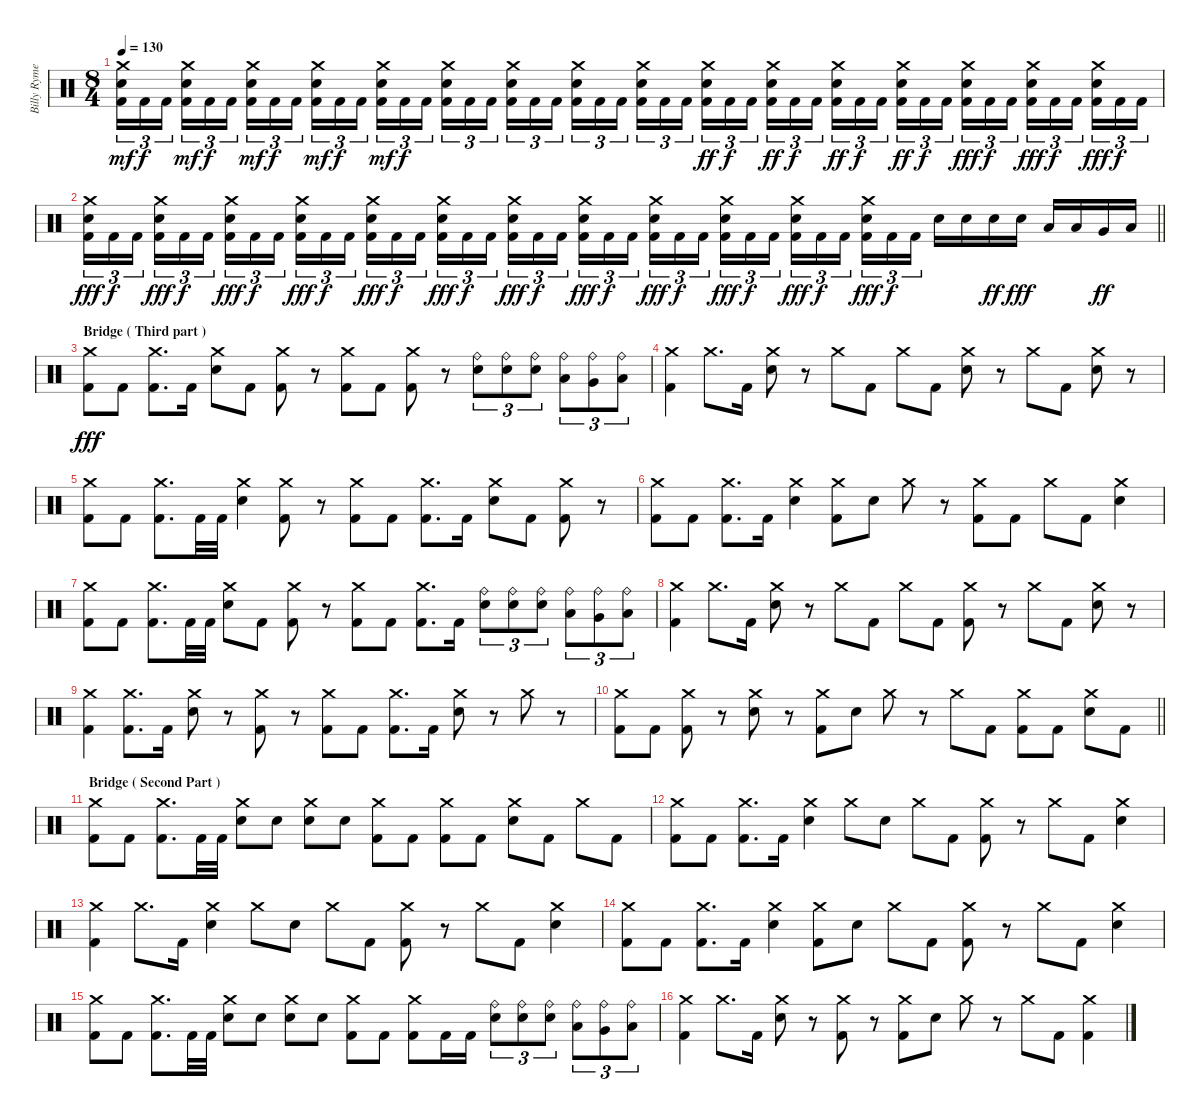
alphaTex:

\track ("Billy Rymer" "Billy Ryme") {instrument percussion}
\staff {score}
\articulation defaults
\ts (8 4)
\tempo 130
\clef neutral
\ks c
("Crash medium (hit)" "Electric Snare (hit)" "Kick (hit) 2").16{tu (3 2) dy mf} "Kick (hit) 2".16{tu (3 2) dy f} "Kick (hit) 2".16{tu (3 2) beam splitsecondary} ("Crash medium (hit)" "Electric Snare (hit)" "Kick (hit) 2").16{tu (3 2) dy mf} "Kick (hit) 2".16{tu (3 2) dy f} "Kick (hit) 2".16{tu (3 2)} ("Crash medium (hit)" "Electric Snare (hit)" "Kick (hit) 2").16{tu (3 2) dy mf} "Kick (hit) 2".16{tu (3 2) dy f} "Kick (hit) 2".16{tu (3 2) beam splitsecondary} ("Crash medium (hit)" "Electric Snare (hit)" "Kick (hit) 2").16{tu (3 2) dy mf} "Kick (hit) 2".16{tu (3 2) dy f} "Kick (hit) 2".16{tu (3 2)} ("Crash medium (hit)" "Electric Snare (hit)" "Kick (hit) 2").16{tu (3 2) dy mf} "Kick (hit) 2".16{tu (3 2) dy f} "Kick (hit) 2".16{tu (3 2) beam splitsecondary} ("Crash medium (hit)" "Electric Snare (hit)" "Kick (hit) 2").16{tu (3 2)} "Kick (hit) 2".16{tu (3 2)} "Kick (hit) 2".16{tu (3 2)} ("Crash medium (hit)" "Electric Snare (hit)" "Kick (hit) 2").16{tu (3 2)} "Kick (hit) 2".16{tu (3 2)} "Kick (hit) 2".16{tu (3 2) beam splitsecondary} ("Crash medium (hit)" "Electric Snare (hit)" "Kick (hit) 2").16{tu (3 2)} "Kick (hit) 2".16{tu (3 2)} "Kick (hit) 2".16{tu (3 2)} ("Crash medium (hit)" "Electric Snare (hit)" "Kick (hit) 2").16{tu (3 2)} "Kick (hit) 2".16{tu (3 2)} "Kick (hit) 2".16{tu (3 2) beam splitsecondary} ("Crash medium (hit)" "Electric Snare (hit)" "Kick (hit) 2").16{tu (3 2) dy ff} "Kick (hit) 2".16{tu (3 2) dy f} "Kick (hit) 2".16{tu (3 2)} ("Crash medium (hit)" "Electric Snare (hit)" "Kick (hit) 2").16{tu (3 2) dy ff} "Kick (hit) 2".16{tu (3 2) dy f} "Kick (hit) 2".16{tu (3 2) beam splitsecondary} ("Crash medium (hit)" "Electric Snare (hit)" "Kick (hit) 2").16{tu (3 2) dy ff} "Kick (hit) 2".16{tu (3 2) dy f} "Kick (hit) 2".16{tu (3 2)} ("Crash medium (hit)" "Electric Snare (hit)" "Kick (hit) 2").16{tu (3 2) dy ff} "Kick (hit) 2".16{tu (3 2) dy f} "Kick (hit) 2".16{tu (3 2) beam splitsecondary} ("Crash medium (hit)" "Electric Snare (hit)" "Kick (hit) 2").16{tu (3 2) dy fff} "Kick (hit) 2".16{tu (3 2) dy f} "Kick (hit) 2".16{tu (3 2)} ("Crash medium (hit)" "Electric Snare (hit)" "Kick (hit) 2").16{tu (3 2) dy fff} "Kick (hit) 2".16{tu (3 2) dy f} "Kick (hit) 2".16{tu (3 2) beam splitsecondary} ("Crash medium (hit)" "Electric Snare (hit)" "Kick (hit) 2").16{tu (3 2) dy fff} "Kick (hit) 2".16{tu (3 2) dy f} "Kick (hit) 2".16{tu (3 2)} |
\barLineRight lightlight
("Crash medium (hit)" "Electric Snare (hit)" "Kick (hit) 2").16{tu (3 2) dy fff} "Kick (hit) 2".16{tu (3 2) dy f} "Kick (hit) 2".16{tu (3 2) beam splitsecondary} ("Crash medium (hit)" "Electric Snare (hit)" "Kick (hit) 2").16{tu (3 2) dy fff} "Kick (hit) 2".16{tu (3 2) dy f} "Kick (hit) 2".16{tu (3 2)} ("Crash medium (hit)" "Electric Snare (hit)" "Kick (hit) 2").16{tu (3 2) dy fff} "Kick (hit) 2".16{tu (3 2) dy f} "Kick (hit) 2".16{tu (3 2) beam splitsecondary} ("Crash medium (hit)" "Electric Snare (hit)" "Kick (hit) 2").16{tu (3 2) dy fff} "Kick (hit) 2".16{tu (3 2) dy f} "Kick (hit) 2".16{tu (3 2)} ("Crash medium (hit)" "Electric Snare (hit)" "Kick (hit) 2").16{tu (3 2) dy fff} "Kick (hit) 2".16{tu (3 2) dy f} "Kick (hit) 2".16{tu (3 2) beam splitsecondary} ("Crash medium (hit)" "Electric Snare (hit)" "Kick (hit) 2").16{tu (3 2) dy fff} "Kick (hit) 2".16{tu (3 2) dy f} "Kick (hit) 2".16{tu (3 2)} ("Crash medium (hit)" "Electric Snare (hit)" "Kick (hit) 2").16{tu (3 2) dy fff} "Kick (hit) 2".16{tu (3 2) dy f} "Kick (hit) 2".16{tu (3 2) beam splitsecondary} ("Crash medium (hit)" "Electric Snare (hit)" "Kick (hit) 2").16{tu (3 2) dy fff} "Kick (hit) 2".16{tu (3 2) dy f} "Kick (hit) 2".16{tu (3 2)} ("Crash medium (hit)" "Electric Snare (hit)" "Kick (hit) 2").16{tu (3 2) dy fff} "Kick (hit) 2".16{tu (3 2) dy f} "Kick (hit) 2".16{tu (3 2) beam splitsecondary} ("Crash medium (hit)" "Electric Snare (hit)" "Kick (hit) 2").16{tu (3 2) dy fff} "Kick (hit) 2".16{tu (3 2) dy f} "Kick (hit) 2".16{tu (3 2)} ("Crash medium (hit)" "Electric Snare (hit)" "Kick (hit) 2").16{tu (3 2) dy fff} "Kick (hit) 2".16{tu (3 2) dy f} "Kick (hit) 2".16{tu (3 2) beam splitsecondary} ("Crash medium (hit)" "Electric Snare (hit)" "Kick (hit) 2").16{tu (3 2) dy fff} "Kick (hit) 2".16{tu (3 2) dy f} "Kick (hit) 2".16{tu (3 2)} "Electric Snare (hit)".16 "Electric Snare (hit)".16 "Electric Snare (hit)".16{dy ff} "Electric Snare (hit)".16{dy fff} "Low Tom (hit)".16 "Low Tom (hit)".16 "Very Low Tom (hit)".16{dy ff} "Low Floor Tom (hit)".16 |
\section ("" "Bridge ( Third part )")
("Crash medium (hit)" "Kick (hit) 2").8{dy fff} "Kick (hit) 2".8 ("Crash medium (hit)" "Kick (hit) 2").8{d} "Kick (hit) 2".16 ("Crash medium (hit)" "Electric Snare (hit)").8 "Kick (hit) 2".8 ("Crash medium (hit)" "Kick (hit) 2").8 r.8 ("Crash medium (hit)" "Kick (hit) 2").8 "Kick (hit) 2".8 ("Crash medium (hit)" "Kick (hit) 2").8 r.8 ("Ride (bell)" "Electric Snare (hit)").8{tu (3 2)} ("Ride (bell)" "Electric Snare (hit)").8{tu (3 2)} ("Ride (bell)" "Electric Snare (hit)").8{tu (3 2)} ("Ride (bell)" "Low Tom (hit)").8{tu (3 2)} ("Ride (bell)" "Very Low Tom (hit)").8{tu (3 2)} ("Ride (bell)" "Low Floor Tom (hit)").8{tu (3 2)} |
("Crash medium (hit)" "Kick (hit) 2").4 "Crash medium (hit)".8{d} "Kick (hit) 2".16 ("Crash medium (hit)" "Electric Snare (hit)").8 r.8 "Crash medium (hit)".8 "Kick (hit) 2".8 "Crash medium (hit)".8 "Kick (hit) 2".8 ("Crash medium (hit)" "Electric Snare (hit)").8 r.8 "Crash medium (hit)".8 "Kick (hit) 2".8 ("Crash medium (hit)" "Electric Snare (hit)").8 r.8 |
("Crash medium (hit)" "Kick (hit) 2").8 "Kick (hit) 2".8 ("Crash medium (hit)" "Kick (hit) 2").8{d} "Kick (hit) 2".32 "Kick (hit) 2".32 ("Crash medium (hit)" "Electric Snare (hit)").4 ("Crash medium (hit)" "Kick (hit) 2").8 r.8 ("Crash medium (hit)" "Kick (hit) 2").8 "Kick (hit) 2".8 ("Crash medium (hit)" "Kick (hit) 2").8{d} "Kick (hit) 2".16 ("Crash medium (hit)" "Electric Snare (hit)").8 "Kick (hit) 2".8 ("Crash medium (hit)" "Kick (hit) 2").8 r.8 |
("Crash medium (hit)" "Kick (hit) 2").8 "Kick (hit) 2".8 ("Crash medium (hit)" "Kick (hit) 2").8{d} "Kick (hit) 2".16 ("Crash medium (hit)" "Electric Snare (hit)").4 ("Crash medium (hit)" "Kick (hit) 2").8 "Electric Snare (hit)".8 "Crash medium (hit)".8 r.8 ("Crash medium (hit)" "Kick (hit) 2").8 "Kick (hit) 2".8 "Crash medium (hit)".8 "Kick (hit) 2".8 ("Crash medium (hit)" "Electric Snare (hit)").4 |
("Crash medium (hit)" "Kick (hit) 2").8 "Kick (hit) 2".8 ("Crash medium (hit)" "Kick (hit) 2").8{d} "Kick (hit) 2".32 "Kick (hit) 2".32 ("Crash medium (hit)" "Electric Snare (hit)").8 "Kick (hit) 2".8 ("Crash medium (hit)" "Kick (hit) 2").8 r.8 ("Crash medium (hit)" "Kick (hit) 2").8 "Kick (hit) 2".8 ("Crash medium (hit)" "Kick (hit) 2").8{d} "Kick (hit) 2".16 ("Ride (bell)" "Electric Snare (hit)").8{tu (3 2)} ("Ride (bell)" "Electric Snare (hit)").8{tu (3 2)} ("Ride (bell)" "Electric Snare (hit)").8{tu (3 2)} ("Ride (bell)" "Low Tom (hit)").8{tu (3 2)} ("Ride (bell)" "Very Low Tom (hit)").8{tu (3 2)} ("Ride (bell)" "Low Floor Tom (hit)").8{tu (3 2)} |
("Crash medium (hit)" "Kick (hit) 2").4 "Crash medium (hit)".8{d} "Kick (hit) 2".16 ("Crash medium (hit)" "Electric Snare (hit)").8 r.8 "Crash medium (hit)".8 "Kick (hit) 2".8 "Crash medium (hit)".8 "Kick (hit) 2".8 ("Crash medium (hit)" "Kick (hit) 2").8 r.8 "Crash medium (hit)".8 "Kick (hit) 2".8 ("Crash medium (hit)" "Electric Snare (hit)").8 r.8 |
("Crash medium (hit)" "Kick (hit) 2").4 ("Crash medium (hit)" "Kick (hit) 2").8{d} "Kick (hit) 2".16 ("Crash medium (hit)" "Electric Snare (hit)").8 r.8 ("Crash medium (hit)" "Kick (hit) 2").8 r.8 ("Crash medium (hit)" "Kick (hit) 2").8 "Kick (hit) 2".8 ("Crash medium (hit)" "Kick (hit) 2").8{d} "Kick (hit) 2".16 ("Crash medium (hit)" "Electric Snare (hit)").8 r.8 "Crash medium (hit)".8 r.8 |
\barLineRight lightlight
("Crash medium (hit)" "Kick (hit) 2").8 "Kick (hit) 2".8 ("Crash medium (hit)" "Kick (hit) 2").8 r.8 ("Crash medium (hit)" "Electric Snare (hit)").8 r.8 ("Crash medium (hit)" "Kick (hit) 2").8 "Electric Snare (hit)".8 "Crash medium (hit)".8 r.8 "Crash medium (hit)".8 "Kick (hit) 2".8 ("Crash medium (hit)" "Kick (hit) 2").8 "Kick (hit) 2".8 ("Crash medium (hit)" "Electric Snare (hit)").8 "Kick (hit) 2".8 |
\section ("" "Bridge ( Second Part )")
("Crash medium (hit)" "Kick (hit) 2").8 "Kick (hit) 2".8 ("Crash medium (hit)" "Kick (hit) 2").8{d} "Kick (hit) 2".32 "Kick (hit) 2".32 ("Crash medium (hit)" "Electric Snare (hit)").8 "Electric Snare (hit)".8 ("Crash medium (hit)" "Electric Snare (hit)").8 "Electric Snare (hit)".8 ("Crash medium (hit)" "Kick (hit) 2").8 "Kick (hit) 2".8 ("Crash medium (hit)" "Kick (hit) 2").8 "Kick (hit) 2".8 ("Crash medium (hit)" "Electric Snare (hit)").8 "Kick (hit) 2".8 "Crash medium (hit)".8 "Kick (hit) 2".8 |
("Crash medium (hit)" "Kick (hit) 2").8 "Kick (hit) 2".8 ("Crash medium (hit)" "Kick (hit) 2").8{d} "Kick (hit) 2".16 ("Crash medium (hit)" "Electric Snare (hit)").4 "Crash medium (hit)".8 "Electric Snare (hit)".8 "Crash medium (hit)".8 "Kick (hit) 2".8 ("Crash medium (hit)" "Kick (hit) 2").8 r.8 "Crash medium (hit)".8 "Kick (hit) 2".8 ("Crash medium (hit)" "Electric Snare (hit)").4 |
("Crash medium (hit)" "Kick (hit) 2").4 "Crash medium (hit)".8{d} "Kick (hit) 2".16 ("Crash medium (hit)" "Electric Snare (hit)").4 "Crash medium (hit)".8 "Electric Snare (hit)".8 "Crash medium (hit)".8 "Kick (hit) 2".8 ("Crash medium (hit)" "Kick (hit) 2").8 r.8 "Crash medium (hit)".8 "Kick (hit) 2".8 ("Crash medium (hit)" "Electric Snare (hit)").4 |
("Crash medium (hit)" "Kick (hit) 2").8 "Kick (hit) 2".8 ("Crash medium (hit)" "Kick (hit) 2").8{d} "Kick (hit) 2".16 ("Crash medium (hit)" "Electric Snare (hit)").4 ("Crash medium (hit)" "Kick (hit) 2").8 "Electric Snare (hit)".8 "Crash medium (hit)".8 "Kick (hit) 2".8 ("Crash medium (hit)" "Kick (hit) 2").8 r.8 "Crash medium (hit)".8 "Kick (hit) 2".8 ("Crash medium (hit)" "Electric Snare (hit)").4 |
("Crash medium (hit)" "Kick (hit) 2").8 "Kick (hit) 2".8 ("Crash medium (hit)" "Kick (hit) 2").8{d} "Kick (hit) 2".32 "Kick (hit) 2".32 ("Crash medium (hit)" "Electric Snare (hit)").8 "Electric Snare (hit)".8 ("Crash medium (hit)" "Electric Snare (hit)").8 "Electric Snare (hit)".8 ("Crash medium (hit)" "Kick (hit) 2").8 "Kick (hit) 2".8 ("Crash medium (hit)" "Kick (hit) 2").8 "Kick (hit) 2".16 "Kick (hit) 2".16 ("Ride (bell)" "Electric Snare (hit)").8{tu (3 2)} ("Ride (bell)" "Electric Snare (hit)").8{tu (3 2)} ("Ride (bell)" "Electric Snare (hit)").8{tu (3 2)} ("Ride (bell)" "Low Tom (hit)").8{tu (3 2)} ("Ride (bell)" "Very Low Tom (hit)").8{tu (3 2)} ("Ride (bell)" "Low Floor Tom (hit)").8{tu (3 2)} |
("Crash medium (hit)" "Kick (hit) 2").4 "Crash medium (hit)".8{d} "Kick (hit) 2".16 ("Crash medium (hit)" "Electric Snare (hit)").8 r.8 ("Crash medium (hit)" "Kick (hit) 2").8 r.8 ("Crash medium (hit)" "Kick (hit) 2").8 "Electric Snare (hit)".8 "Crash medium (hit)".8 r.8 "Crash medium (hit)".8 "Kick (hit) 2".8 ("Crash medium (hit)" "Kick (hit) 2").4
